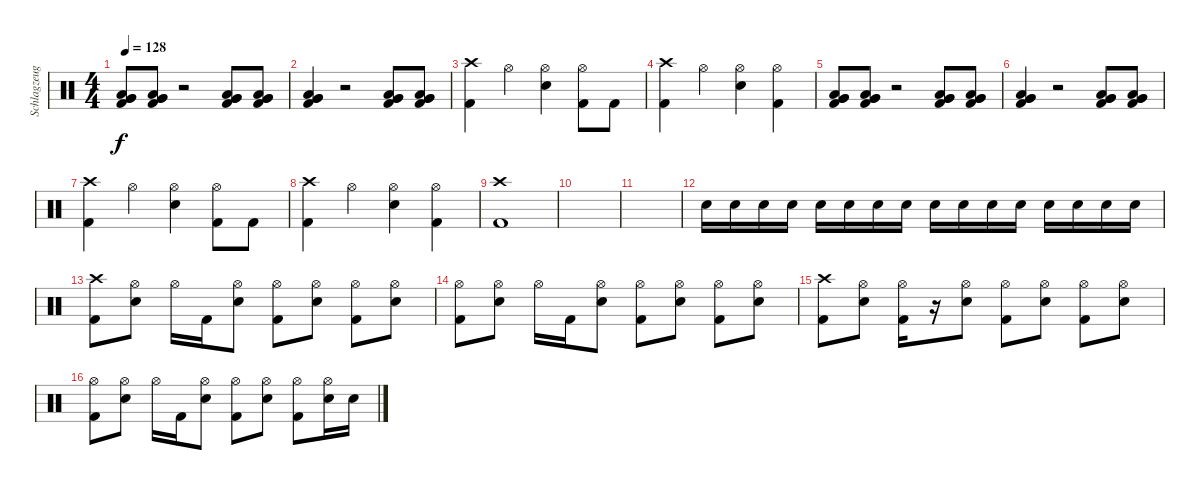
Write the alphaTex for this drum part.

\track ("Schlagzeug" "Schlagzeug") {instrument percussion}
\staff {score}
\articulation defaults
\ts (4 4)
\tempo 128
\clef neutral
\ks c
("Very Low Tom (hit)" "Very Low Tom (hit)" "Low Floor Tom (hit)" "Kick (hit) 2").8{dy f} ("Very Low Tom (hit)" "Very Low Tom (hit)" "Low Floor Tom (hit)" "Kick (hit) 2").8 r.2 ("Very Low Tom (hit)" "Very Low Tom (hit)" "Low Floor Tom (hit)" "Kick (hit) 2").8 ("Very Low Tom (hit)" "Very Low Tom (hit)" "Low Floor Tom (hit)" "Kick (hit) 2").8 |
("Very Low Tom (hit)" "Very Low Tom (hit)" "Low Floor Tom (hit)" "Kick (hit) 2").4 r.2 ("Very Low Tom (hit)" "Very Low Tom (hit)" "Low Floor Tom (hit)" "Kick (hit) 2").8 ("Very Low Tom (hit)" "Very Low Tom (hit)" "Low Floor Tom (hit)" "Kick (hit) 2").8 |
("Crash high (hit)" "Kick (hit) 2").4 "Hi-Hat (open)".4 ("Hi-Hat (open)" "Snare (hit) 2").4 ("Hi-Hat (open)" "Kick (hit) 2").8 "Kick (hit) 2".8 |
("Crash high (hit)" "Kick (hit) 2").4 "Hi-Hat (open)".4 ("Hi-Hat (open)" "Snare (hit) 2").4 ("Hi-Hat (open)" "Kick (hit) 2").4 |
("Very Low Tom (hit)" "Very Low Tom (hit)" "Low Floor Tom (hit)" "Kick (hit) 2").8 ("Very Low Tom (hit)" "Very Low Tom (hit)" "Low Floor Tom (hit)" "Kick (hit) 2").8 r.2 ("Very Low Tom (hit)" "Very Low Tom (hit)" "Low Floor Tom (hit)" "Kick (hit) 2").8 ("Very Low Tom (hit)" "Very Low Tom (hit)" "Low Floor Tom (hit)" "Kick (hit) 2").8 |
("Very Low Tom (hit)" "Very Low Tom (hit)" "Low Floor Tom (hit)" "Kick (hit) 2").4 r.2 ("Very Low Tom (hit)" "Very Low Tom (hit)" "Low Floor Tom (hit)" "Kick (hit) 2").8 ("Very Low Tom (hit)" "Very Low Tom (hit)" "Low Floor Tom (hit)" "Kick (hit) 2").8 |
("Crash high (hit)" "Kick (hit) 2").4 "Hi-Hat (open)".4 ("Hi-Hat (open)" "Snare (hit) 2").4 ("Hi-Hat (open)" "Kick (hit) 2").8 "Kick (hit) 2".8 |
("Crash high (hit)" "Kick (hit) 2").4 "Hi-Hat (open)".4 ("Hi-Hat (open)" "Snare (hit) 2").4 ("Hi-Hat (open)" "Kick (hit) 2").4 |
("Kick (hit) 2" "Crash high (hit)").1 |
|
|
"Electric Snare (hit)".16{volume 8} "Electric Snare (hit)".16 "Electric Snare (hit)".16 "Electric Snare (hit)".16 "Electric Snare (hit)".16{volume 10} "Electric Snare (hit)".16 "Electric Snare (hit)".16 "Electric Snare (hit)".16 "Electric Snare (hit)".16{volume 12} "Electric Snare (hit)".16 "Electric Snare (hit)".16 "Electric Snare (hit)".16 "Electric Snare (hit)".16{volume 14} "Electric Snare (hit)".16 "Electric Snare (hit)".16 "Electric Snare (hit)".16 |
("Crash high (hit)" "Kick (hit) 2").8 ("Hi-Hat (open)" "Snare (hit) 2").8 "Hi-Hat (open)".16 "Kick (hit) 2".16 ("Hi-Hat (open)" "Snare (hit) 2").8 ("Hi-Hat (open)" "Kick (hit) 2").8 ("Hi-Hat (open)" "Snare (hit) 2").8 ("Hi-Hat (open)" "Kick (hit) 2").8 ("Hi-Hat (open)" "Snare (hit) 2").8 |
("Hi-Hat (open)" "Kick (hit) 2").8 ("Hi-Hat (open)" "Snare (hit) 2").8 "Hi-Hat (open)".16 "Kick (hit) 2".16 ("Hi-Hat (open)" "Snare (hit) 2").8 ("Hi-Hat (open)" "Kick (hit) 2").8 ("Hi-Hat (open)" "Snare (hit) 2").8 ("Hi-Hat (open)" "Kick (hit) 2").8 ("Hi-Hat (open)" "Snare (hit) 2").8 |
("Crash high (hit)" "Kick (hit) 2").8 ("Hi-Hat (open)" "Snare (hit) 2").8 ("Hi-Hat (open)" "Kick (hit) 2").16 r.16 ("Hi-Hat (open)" "Snare (hit) 2").8 ("Hi-Hat (open)" "Kick (hit) 2").8 ("Hi-Hat (open)" "Snare (hit) 2").8 ("Hi-Hat (open)" "Kick (hit) 2").8 ("Hi-Hat (open)" "Snare (hit) 2").8 |
("Hi-Hat (open)" "Kick (hit) 2").8 ("Hi-Hat (open)" "Snare (hit) 2").8 "Hi-Hat (open)".16 "Kick (hit) 2".16 ("Hi-Hat (open)" "Snare (hit) 2").8 ("Hi-Hat (open)" "Kick (hit) 2").8 ("Hi-Hat (open)" "Snare (hit) 2").8 ("Hi-Hat (open)" "Kick (hit) 2").8 ("Hi-Hat (open)" "Snare (hit) 2").16 "Snare (hit) 2".16
